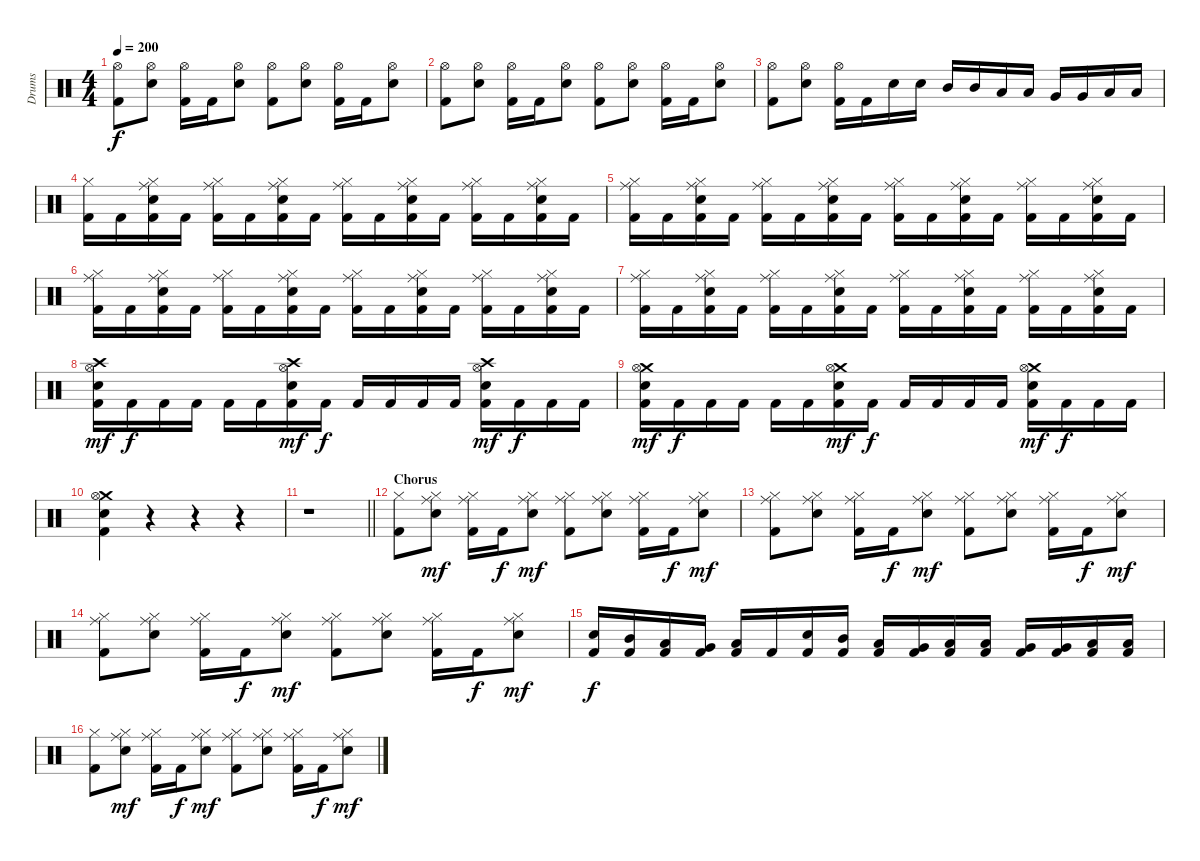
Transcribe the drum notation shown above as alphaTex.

\track ("Drums" "Drums") {instrument percussion}
\staff {score}
\articulation defaults
\ts (4 4)
\tempo 200
\clef neutral
\ks c
("Hi-Hat (open)" "Kick (hit) 2").8{dy f} ("Hi-Hat (open)" "Snare (hit) 2").8 ("Hi-Hat (open)" "Kick (hit) 2").16 "Kick (hit) 2".16 ("Hi-Hat (open)" "Snare (hit) 2").8 ("Hi-Hat (open)" "Kick (hit) 2").8 ("Hi-Hat (open)" "Snare (hit) 2").8 ("Hi-Hat (open)" "Kick (hit) 2").16 "Kick (hit) 2".16 ("Hi-Hat (open)" "Snare (hit) 2").8 |
("Hi-Hat (open)" "Kick (hit) 2").8 ("Hi-Hat (open)" "Snare (hit) 2").8 ("Hi-Hat (open)" "Kick (hit) 2").16 "Kick (hit) 2".16 ("Hi-Hat (open)" "Snare (hit) 2").8 ("Hi-Hat (open)" "Kick (hit) 2").8 ("Hi-Hat (open)" "Snare (hit) 2").8 ("Hi-Hat (open)" "Kick (hit) 2").16 "Kick (hit) 2".16 ("Hi-Hat (open)" "Snare (hit) 2").8 |
("Hi-Hat (open)" "Kick (hit) 2").8 ("Hi-Hat (open)" "Snare (hit) 2").8 ("Hi-Hat (open)" "Kick (hit) 2").16 "Kick (hit) 2".16 "Snare (hit) 2".16 "Snare (hit) 2".16 "Mid Tom (hit)".16 "Mid Tom (hit)".16 "Low Tom (hit)".16 "Low Tom (hit)".16 "Very Low Tom (hit)".16 "Very Low Tom (hit)".16 "Low Floor Tom (hit)".16 "Low Floor Tom (hit)".16 |
("Hi-Hat (closed)" "Kick (hit) 2").16 "Kick (hit) 2".16 ("Hi-Hat (closed)" "Ride (middle)" "Snare (hit) 2" "Kick (hit) 2").16 "Kick (hit) 2".16 ("Hi-Hat (closed)" "Ride (middle)" "Kick (hit) 2").16 "Kick (hit) 2".16 ("Hi-Hat (closed)" "Ride (middle)" "Snare (hit) 2" "Kick (hit) 2").16 "Kick (hit) 2".16 ("Hi-Hat (closed)" "Ride (middle)" "Kick (hit) 2").16 "Kick (hit) 2".16 ("Hi-Hat (closed)" "Ride (middle)" "Snare (hit) 2" "Kick (hit) 2").16 "Kick (hit) 2".16 ("Hi-Hat (closed)" "Ride (middle)" "Kick (hit) 2").16 "Kick (hit) 2".16 ("Hi-Hat (closed)" "Ride (middle)" "Snare (hit) 2" "Kick (hit) 2").16 "Kick (hit) 2".16 |
("Hi-Hat (closed)" "Ride (middle)" "Kick (hit) 2").16 "Kick (hit) 2".16 ("Hi-Hat (closed)" "Ride (middle)" "Snare (hit) 2" "Kick (hit) 2").16 "Kick (hit) 2".16 ("Hi-Hat (closed)" "Ride (middle)" "Kick (hit) 2").16 "Kick (hit) 2".16 ("Hi-Hat (closed)" "Ride (middle)" "Snare (hit) 2" "Kick (hit) 2").16 "Kick (hit) 2".16 ("Hi-Hat (closed)" "Ride (middle)" "Kick (hit) 2").16 "Kick (hit) 2".16 ("Hi-Hat (closed)" "Ride (middle)" "Snare (hit) 2" "Kick (hit) 2").16 "Kick (hit) 2".16 ("Hi-Hat (closed)" "Ride (middle)" "Kick (hit) 2").16 "Kick (hit) 2".16 ("Hi-Hat (closed)" "Ride (middle)" "Snare (hit) 2" "Kick (hit) 2").16 "Kick (hit) 2".16 |
("Hi-Hat (closed)" "Ride (middle)" "Kick (hit) 2").16 "Kick (hit) 2".16 ("Hi-Hat (closed)" "Ride (middle)" "Snare (hit) 2" "Kick (hit) 2").16 "Kick (hit) 2".16 ("Hi-Hat (closed)" "Ride (middle)" "Kick (hit) 2").16 "Kick (hit) 2".16 ("Hi-Hat (closed)" "Ride (middle)" "Snare (hit) 2" "Kick (hit) 2").16 "Kick (hit) 2".16 ("Hi-Hat (closed)" "Ride (middle)" "Kick (hit) 2").16 "Kick (hit) 2".16 ("Hi-Hat (closed)" "Ride (middle)" "Snare (hit) 2" "Kick (hit) 2").16 "Kick (hit) 2".16 ("Hi-Hat (closed)" "Ride (middle)" "Kick (hit) 2").16 "Kick (hit) 2".16 ("Hi-Hat (closed)" "Ride (middle)" "Snare (hit) 2" "Kick (hit) 2").16 "Kick (hit) 2".16 |
("Hi-Hat (closed)" "Ride (middle)" "Kick (hit) 2").16 "Kick (hit) 2".16 ("Hi-Hat (closed)" "Ride (middle)" "Snare (hit) 2" "Kick (hit) 2").16 "Kick (hit) 2".16 ("Hi-Hat (closed)" "Ride (middle)" "Kick (hit) 2").16 "Kick (hit) 2".16 ("Hi-Hat (closed)" "Ride (middle)" "Snare (hit) 2" "Kick (hit) 2").16 "Kick (hit) 2".16 ("Hi-Hat (closed)" "Ride (middle)" "Kick (hit) 2").16 "Kick (hit) 2".16 ("Hi-Hat (closed)" "Ride (middle)" "Snare (hit) 2" "Kick (hit) 2").16 "Kick (hit) 2".16 ("Hi-Hat (closed)" "Ride (middle)" "Kick (hit) 2").16 "Kick (hit) 2".16 ("Hi-Hat (closed)" "Ride (middle)" "Snare (hit) 2" "Kick (hit) 2").16 "Kick (hit) 2".16 |
("Crash high (hit)" "Hi-Hat (open)" "Snare (hit) 2" "Kick (hit) 2").16{dy mf} "Kick (hit) 2".16{dy f} "Kick (hit) 2".16 "Kick (hit) 2".16 "Kick (hit) 2".16 "Kick (hit) 2".16 ("Crash high (hit)" "Hi-Hat (open)" "Snare (hit) 2" "Kick (hit) 2").16{dy mf} "Kick (hit) 2".16{dy f} "Kick (hit) 2".16 "Kick (hit) 2".16 "Kick (hit) 2".16 "Kick (hit) 2".16 ("Crash high (hit)" "Hi-Hat (open)" "Snare (hit) 2" "Kick (hit) 2").16{dy mf} "Kick (hit) 2".16{dy f} "Kick (hit) 2".16 "Kick (hit) 2".16 |
("Crash medium (hit)" "Hi-Hat (open)" "Snare (hit) 2" "Kick (hit) 2").16{dy mf} "Kick (hit) 2".16{dy f} "Kick (hit) 2".16 "Kick (hit) 2".16 "Kick (hit) 2".16 "Kick (hit) 2".16 ("Crash medium (hit)" "Hi-Hat (open)" "Snare (hit) 2" "Kick (hit) 2").16{dy mf} "Kick (hit) 2".16{dy f} "Kick (hit) 2".16 "Kick (hit) 2".16 "Kick (hit) 2".16 "Kick (hit) 2".16 ("Crash medium (hit)" "Hi-Hat (open)" "Snare (hit) 2" "Kick (hit) 2").16{dy mf} "Kick (hit) 2".16{dy f} "Kick (hit) 2".16 "Kick (hit) 2".16 |
("Crash medium (hit)" "Hi-Hat (open)" "Snare (hit) 2" "Kick (hit) 2").4 r.4 r.4 r.4 |
\barLineRight lightlight
r.1 |
\section ("" "Chorus")
("Hi-Hat (closed)" "Kick (hit) 2").8 ("Hi-Hat (closed)" "Ride (middle)" "Snare (hit) 2").8{dy mf} ("Hi-Hat (closed)" "Ride (middle)" "Kick (hit) 2").16 "Kick (hit) 2".16{dy f} ("Hi-Hat (closed)" "Ride (middle)" "Snare (hit) 2").8{dy mf} ("Hi-Hat (closed)" "Ride (middle)" "Kick (hit) 2").8 ("Hi-Hat (closed)" "Ride (middle)" "Snare (hit) 2").8 ("Hi-Hat (closed)" "Ride (middle)" "Kick (hit) 2").16 "Kick (hit) 2".16{dy f} ("Hi-Hat (closed)" "Ride (middle)" "Snare (hit) 2").8{dy mf} |
("Hi-Hat (closed)" "Ride (middle)" "Kick (hit) 2").8 ("Hi-Hat (closed)" "Ride (middle)" "Snare (hit) 2").8 ("Hi-Hat (closed)" "Ride (middle)" "Kick (hit) 2").16 "Kick (hit) 2".16{dy f} ("Hi-Hat (closed)" "Ride (middle)" "Snare (hit) 2").8{dy mf} ("Hi-Hat (closed)" "Ride (middle)" "Kick (hit) 2").8 ("Hi-Hat (closed)" "Ride (middle)" "Snare (hit) 2").8 ("Hi-Hat (closed)" "Ride (middle)" "Kick (hit) 2").16 "Kick (hit) 2".16{dy f} ("Hi-Hat (closed)" "Ride (middle)" "Snare (hit) 2").8{dy mf} |
("Hi-Hat (closed)" "Ride (middle)" "Kick (hit) 2").8 ("Hi-Hat (closed)" "Ride (middle)" "Snare (hit) 2").8 ("Hi-Hat (closed)" "Ride (middle)" "Kick (hit) 2").16 "Kick (hit) 2".16{dy f} ("Hi-Hat (closed)" "Ride (middle)" "Snare (hit) 2").8{dy mf} ("Hi-Hat (closed)" "Ride (middle)" "Kick (hit) 2").8 ("Hi-Hat (closed)" "Ride (middle)" "Snare (hit) 2").8 ("Hi-Hat (closed)" "Ride (middle)" "Kick (hit) 2").16 "Kick (hit) 2".16{dy f} ("Hi-Hat (closed)" "Ride (middle)" "Snare (hit) 2").8{dy mf} |
("Snare (hit) 2" "Kick (hit) 2").16{dy f} ("Mid Tom (hit)" "Kick (hit) 2").16 ("Low Tom (hit)" "Kick (hit) 2").16 ("Very Low Tom (hit)" "Kick (hit) 2").16 ("Low Floor Tom (hit)" "Kick (hit) 2").16 "Kick (hit) 2".16 ("Snare (hit) 2" "Kick (hit) 2").16 ("Mid Tom (hit)" "Kick (hit) 2").16 ("Low Tom (hit)" "Kick (hit) 2").16 ("Very Low Tom (hit)" "Kick (hit) 2").16 ("Low Tom (hit)" "Kick (hit) 2").16 ("Low Tom (hit)" "Kick (hit) 2").16 ("Very Low Tom (hit)" "Kick (hit) 2").16 ("Very Low Tom (hit)" "Kick (hit) 2").16 ("Low Floor Tom (hit)" "Kick (hit) 2").16 ("Low Floor Tom (hit)" "Kick (hit) 2").16 |
("Hi-Hat (closed)" "Kick (hit) 2").8 ("Hi-Hat (closed)" "Ride (middle)" "Snare (hit) 2").8{dy mf} ("Hi-Hat (closed)" "Ride (middle)" "Kick (hit) 2").16 "Kick (hit) 2".16{dy f} ("Hi-Hat (closed)" "Ride (middle)" "Snare (hit) 2").8{dy mf} ("Hi-Hat (closed)" "Ride (middle)" "Kick (hit) 2").8 ("Hi-Hat (closed)" "Ride (middle)" "Snare (hit) 2").8 ("Hi-Hat (closed)" "Ride (middle)" "Kick (hit) 2").16 "Kick (hit) 2".16{dy f} ("Hi-Hat (closed)" "Ride (middle)" "Snare (hit) 2").8{dy mf}
